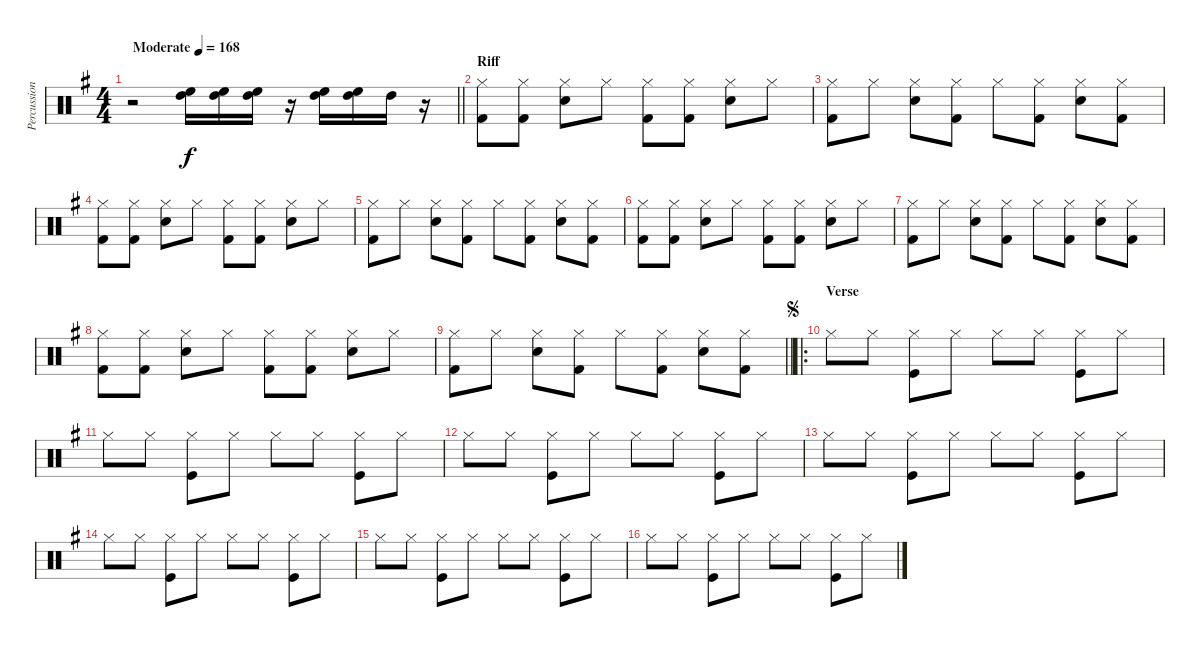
\track ("Percussion" "Percussion") {instrument percussion}
\staff {score}
\articulation defaults
\ts (4 4)
\tempo (168 "Moderate")
\clef neutral
\barLineRight lightlight
\ks g
r.2{dy f} ("High Floor Tom (hit)" "High Tom (hit)").16 ("High Floor Tom (hit)" "High Tom (hit)").16 ("High Floor Tom (hit)" "High Tom (hit)").16 r.16 ("High Floor Tom (hit)" "High Tom (hit)").16 ("High Floor Tom (hit)" "High Tom (hit)").16 "High Tom (hit)".16 r.16 |
\section ("" "Riff")
("Hi-Hat (closed)" "Kick (hit) 2").8 ("Hi-Hat (closed)" "Kick (hit) 2").8 ("Hi-Hat (closed)" "Snare (hit) 2").8 "Hi-Hat (closed)".8 ("Hi-Hat (closed)" "Kick (hit) 2").8 ("Hi-Hat (closed)" "Kick (hit) 2").8 ("Hi-Hat (closed)" "Snare (hit) 2").8 "Hi-Hat (closed)".8 |
("Hi-Hat (closed)" "Kick (hit) 2").8 "Hi-Hat (closed)".8 ("Hi-Hat (closed)" "Snare (hit) 2").8 ("Hi-Hat (closed)" "Kick (hit) 2").8 "Hi-Hat (closed)".8 ("Hi-Hat (closed)" "Kick (hit) 2").8 ("Hi-Hat (closed)" "Snare (hit) 2").8 ("Hi-Hat (closed)" "Kick (hit) 2").8 |
("Hi-Hat (closed)" "Kick (hit) 2").8 ("Hi-Hat (closed)" "Kick (hit) 2").8 ("Hi-Hat (closed)" "Snare (hit) 2").8 "Hi-Hat (closed)".8 ("Hi-Hat (closed)" "Kick (hit) 2").8 ("Hi-Hat (closed)" "Kick (hit) 2").8 ("Hi-Hat (closed)" "Snare (hit) 2").8 "Hi-Hat (closed)".8 |
("Hi-Hat (closed)" "Kick (hit) 2").8 "Hi-Hat (closed)".8 ("Hi-Hat (closed)" "Snare (hit) 2").8 ("Hi-Hat (closed)" "Kick (hit) 2").8 "Hi-Hat (closed)".8 ("Hi-Hat (closed)" "Kick (hit) 2").8 ("Hi-Hat (closed)" "Snare (hit) 2").8 ("Hi-Hat (closed)" "Kick (hit) 2").8 |
("Hi-Hat (closed)" "Kick (hit) 2").8 ("Hi-Hat (closed)" "Kick (hit) 2").8 ("Hi-Hat (closed)" "Snare (hit) 2").8 "Hi-Hat (closed)".8 ("Hi-Hat (closed)" "Kick (hit) 2").8 ("Hi-Hat (closed)" "Kick (hit) 2").8 ("Hi-Hat (closed)" "Snare (hit) 2").8 "Hi-Hat (closed)".8 |
("Hi-Hat (closed)" "Kick (hit) 2").8 "Hi-Hat (closed)".8 ("Hi-Hat (closed)" "Snare (hit) 2").8 ("Hi-Hat (closed)" "Kick (hit) 2").8 "Hi-Hat (closed)".8 ("Hi-Hat (closed)" "Kick (hit) 2").8 ("Hi-Hat (closed)" "Snare (hit) 2").8 ("Hi-Hat (closed)" "Kick (hit) 2").8 |
("Hi-Hat (closed)" "Kick (hit) 2").8 ("Hi-Hat (closed)" "Kick (hit) 2").8 ("Hi-Hat (closed)" "Snare (hit) 2").8 "Hi-Hat (closed)".8 ("Hi-Hat (closed)" "Kick (hit) 2").8 ("Hi-Hat (closed)" "Kick (hit) 2").8 ("Hi-Hat (closed)" "Snare (hit) 2").8 "Hi-Hat (closed)".8 |
\barLineRight lightlight
("Hi-Hat (closed)" "Kick (hit) 2").8 "Hi-Hat (closed)".8 ("Hi-Hat (closed)" "Snare (hit) 2").8 ("Hi-Hat (closed)" "Kick (hit) 2").8 "Hi-Hat (closed)".8 ("Hi-Hat (closed)" "Kick (hit) 2").8 ("Hi-Hat (closed)" "Snare (hit) 2").8 ("Hi-Hat (closed)" "Kick (hit) 2").8 |
\ro
\section ("" "Verse")
\jump segno "Hi-Hat (closed)".8 "Hi-Hat (closed)".8
("Hi-Hat (closed)" "Kick (hit)").8 "Hi-Hat (closed)".8 "Hi-Hat (closed)".8 "Hi-Hat (closed)".8 ("Hi-Hat (closed)" "Kick (hit)").8 "Hi-Hat (closed)".8 |
"Hi-Hat (closed)".8 "Hi-Hat (closed)".8 ("Hi-Hat (closed)" "Kick (hit)").8 "Hi-Hat (closed)".8 "Hi-Hat (closed)".8 "Hi-Hat (closed)".8 ("Hi-Hat (closed)" "Kick (hit)").8 "Hi-Hat (closed)".8 |
"Hi-Hat (closed)".8 "Hi-Hat (closed)".8 ("Hi-Hat (closed)" "Kick (hit)").8 "Hi-Hat (closed)".8 "Hi-Hat (closed)".8 "Hi-Hat (closed)".8 ("Hi-Hat (closed)" "Kick (hit)").8 "Hi-Hat (closed)".8 |
"Hi-Hat (closed)".8 "Hi-Hat (closed)".8 ("Hi-Hat (closed)" "Kick (hit)").8 "Hi-Hat (closed)".8 "Hi-Hat (closed)".8 "Hi-Hat (closed)".8 ("Hi-Hat (closed)" "Kick (hit)").8 "Hi-Hat (closed)".8 |
"Hi-Hat (closed)".8 "Hi-Hat (closed)".8 ("Hi-Hat (closed)" "Kick (hit)").8 "Hi-Hat (closed)".8 "Hi-Hat (closed)".8 "Hi-Hat (closed)".8 ("Hi-Hat (closed)" "Kick (hit)").8 "Hi-Hat (closed)".8 |
"Hi-Hat (closed)".8 "Hi-Hat (closed)".8 ("Hi-Hat (closed)" "Kick (hit)").8 "Hi-Hat (closed)".8 "Hi-Hat (closed)".8 "Hi-Hat (closed)".8 ("Hi-Hat (closed)" "Kick (hit)").8 "Hi-Hat (closed)".8 |
"Hi-Hat (closed)".8 "Hi-Hat (closed)".8 ("Hi-Hat (closed)" "Kick (hit)").8 "Hi-Hat (closed)".8 "Hi-Hat (closed)".8 "Hi-Hat (closed)".8 ("Hi-Hat (closed)" "Kick (hit)").8 "Hi-Hat (closed)".8
